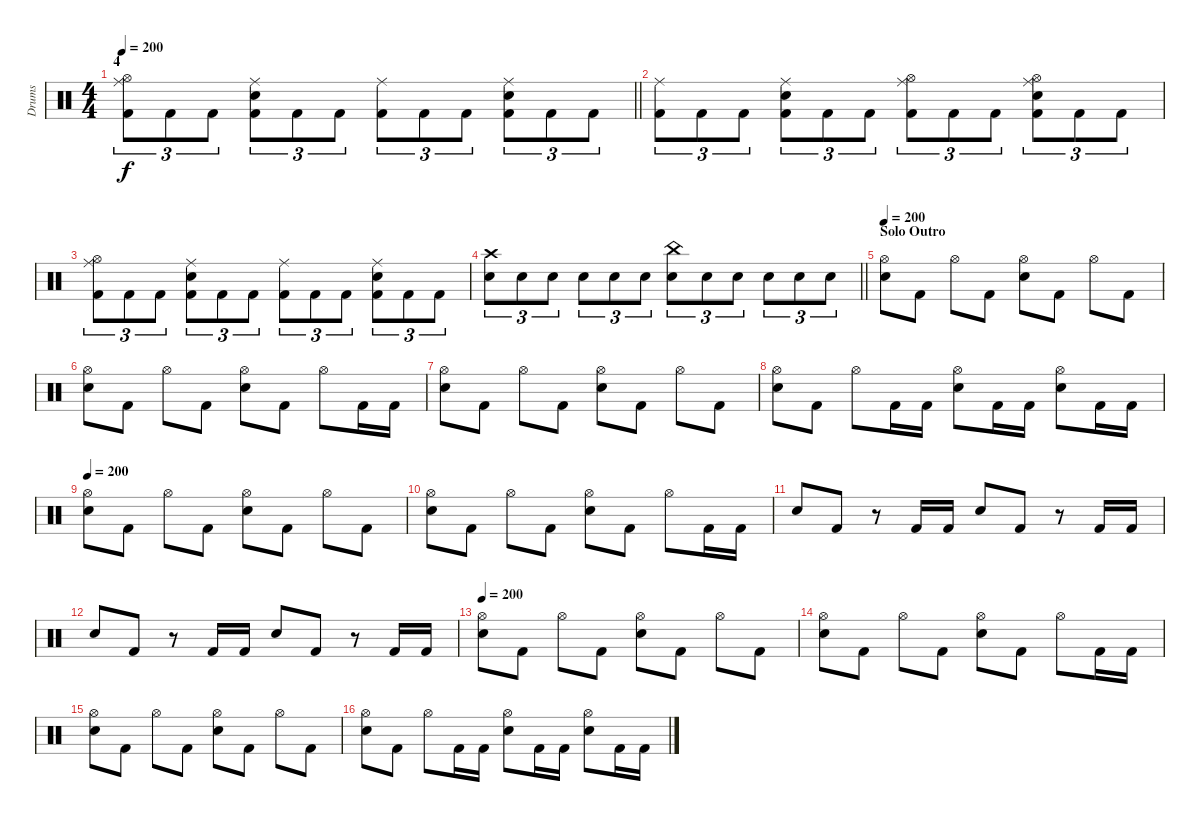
\track ("Drums" "Drums") {instrument percussion}
\staff {score}
\articulation defaults
\ts (4 4)
\section ("" "4")
\tempo 200
\clef neutral
\barLineRight lightlight
\ks c
("Ride (middle)" "Hi-Hat (open)" "Kick (hit) 2").8{tu (3 2) dy f} "Kick (hit) 2".8{tu (3 2)} "Kick (hit) 2".8{tu (3 2)} ("Electric Snare (hit)" "Ride (middle)" "Kick (hit) 2").8{tu (3 2)} "Kick (hit) 2".8{tu (3 2)} "Kick (hit) 2".8{tu (3 2)} ("Ride (middle)" "Kick (hit) 2").8{tu (3 2)} "Kick (hit) 2".8{tu (3 2)} "Kick (hit) 2".8{tu (3 2)} ("Kick (hit) 2" "Electric Snare (hit)" "Ride (middle)").8{tu (3 2)} "Kick (hit) 2".8{tu (3 2)} "Kick (hit) 2".8{tu (3 2)} |
("Kick (hit) 2" "Ride (middle)").8{tu (3 2)} "Kick (hit) 2".8{tu (3 2)} "Kick (hit) 2".8{tu (3 2)} ("Kick (hit) 2" "Electric Snare (hit)" "Ride (middle)").8{tu (3 2)} "Kick (hit) 2".8{tu (3 2)} "Kick (hit) 2".8{tu (3 2)} ("Kick (hit) 2" "Ride (middle)" "Hi-Hat (open)").8{tu (3 2)} "Kick (hit) 2".8{tu (3 2)} "Kick (hit) 2".8{tu (3 2)} ("Kick (hit) 2" "Electric Snare (hit)" "Ride (middle)" "Hi-Hat (open)").8{tu (3 2)} "Kick (hit) 2".8{tu (3 2)} "Kick (hit) 2".8{tu (3 2)} |
("Ride (middle)" "Hi-Hat (open)" "Kick (hit) 2").8{tu (3 2)} "Kick (hit) 2".8{tu (3 2)} "Kick (hit) 2".8{tu (3 2)} ("Electric Snare (hit)" "Ride (middle)" "Kick (hit) 2").8{tu (3 2)} "Kick (hit) 2".8{tu (3 2)} "Kick (hit) 2".8{tu (3 2)} ("Ride (middle)" "Kick (hit) 2").8{tu (3 2)} "Kick (hit) 2".8{tu (3 2)} "Kick (hit) 2".8{tu (3 2)} ("Kick (hit) 2" "Electric Snare (hit)" "Ride (middle)").8{tu (3 2)} "Kick (hit) 2".8{tu (3 2)} "Kick (hit) 2".8{tu (3 2)} |
\barLineRight lightlight
("Electric Snare (hit)" "Crash high (hit)").8{tu (3 2)} "Electric Snare (hit)".8{tu (3 2)} "Electric Snare (hit)".8{tu (3 2)} "Electric Snare (hit)".8{tu (3 2)} "Electric Snare (hit)".8{tu (3 2)} "Electric Snare (hit)".8{tu (3 2)} ("Snare (hit) 2" "China (hit)").8{tu (3 2)} "Snare (hit) 2".8{tu (3 2)} "Snare (hit) 2".8{tu (3 2)} "Snare (hit) 2".8{tu (3 2)} "Snare (hit) 2".8{tu (3 2)} "Snare (hit) 2".8{tu (3 2)} |
\section ("" "Solo Outro")
\tempo 200
("Hi-Hat (open)" "Electric Snare (hit)").8 "Kick (hit) 2".8 "Hi-Hat (open)".8 "Kick (hit) 2".8 ("Electric Snare (hit)" "Hi-Hat (open)").8 "Kick (hit) 2".8 "Hi-Hat (open)".8 "Kick (hit) 2".8 |
("Electric Snare (hit)" "Hi-Hat (open)").8 "Kick (hit) 2".8 "Hi-Hat (open)".8 "Kick (hit) 2".8 ("Electric Snare (hit)" "Hi-Hat (open)").8 "Kick (hit) 2".8 "Hi-Hat (open)".8 "Kick (hit) 2".16 "Kick (hit) 2".16 |
("Hi-Hat (open)" "Electric Snare (hit)").8 "Kick (hit) 2".8 "Hi-Hat (open)".8 "Kick (hit) 2".8 ("Electric Snare (hit)" "Hi-Hat (open)").8 "Kick (hit) 2".8 "Hi-Hat (open)".8 "Kick (hit) 2".8 |
("Electric Snare (hit)" "Hi-Hat (open)").8 "Kick (hit) 2".8 "Hi-Hat (open)".8 "Kick (hit) 2".16 "Kick (hit) 2".16 ("Electric Snare (hit)" "Hi-Hat (open)").8 "Kick (hit) 2".16 "Kick (hit) 2".16 ("Electric Snare (hit)" "Hi-Hat (open)").8 "Kick (hit) 2".16 "Kick (hit) 2".16 |
\tempo 200
("Hi-Hat (open)" "Electric Snare (hit)").8 "Kick (hit) 2".8 "Hi-Hat (open)".8 "Kick (hit) 2".8 ("Electric Snare (hit)" "Hi-Hat (open)").8 "Kick (hit) 2".8 "Hi-Hat (open)".8 "Kick (hit) 2".8 |
("Electric Snare (hit)" "Hi-Hat (open)").8 "Kick (hit) 2".8 "Hi-Hat (open)".8 "Kick (hit) 2".8 ("Electric Snare (hit)" "Hi-Hat (open)").8 "Kick (hit) 2".8 "Hi-Hat (open)".8 "Kick (hit) 2".16 "Kick (hit) 2".16 |
"Electric Snare (hit)".8 "Kick (hit) 2".8 r.8 "Kick (hit) 2".16 "Kick (hit) 2".16 "Electric Snare (hit)".8 "Kick (hit) 2".8 r.8 "Kick (hit) 2".16 "Kick (hit) 2".16 |
"Electric Snare (hit)".8 "Kick (hit) 2".8 r.8 "Kick (hit) 2".16 "Kick (hit) 2".16 "Electric Snare (hit)".8 "Kick (hit) 2".8 r.8 "Kick (hit) 2".16 "Kick (hit) 2".16 |
\tempo 200
("Hi-Hat (open)" "Electric Snare (hit)").8 "Kick (hit) 2".8 "Hi-Hat (open)".8 "Kick (hit) 2".8 ("Electric Snare (hit)" "Hi-Hat (open)").8 "Kick (hit) 2".8 "Hi-Hat (open)".8 "Kick (hit) 2".8 |
("Electric Snare (hit)" "Hi-Hat (open)").8 "Kick (hit) 2".8 "Hi-Hat (open)".8 "Kick (hit) 2".8 ("Electric Snare (hit)" "Hi-Hat (open)").8 "Kick (hit) 2".8 "Hi-Hat (open)".8 "Kick (hit) 2".16 "Kick (hit) 2".16 |
("Hi-Hat (open)" "Electric Snare (hit)").8 "Kick (hit) 2".8 "Hi-Hat (open)".8 "Kick (hit) 2".8 ("Electric Snare (hit)" "Hi-Hat (open)").8 "Kick (hit) 2".8 "Hi-Hat (open)".8 "Kick (hit) 2".8 |
("Electric Snare (hit)" "Hi-Hat (open)").8 "Kick (hit) 2".8 "Hi-Hat (open)".8 "Kick (hit) 2".16 "Kick (hit) 2".16 ("Electric Snare (hit)" "Hi-Hat (open)").8 "Kick (hit) 2".16 "Kick (hit) 2".16 ("Electric Snare (hit)" "Hi-Hat (open)").8 "Kick (hit) 2".16 "Kick (hit) 2".16
